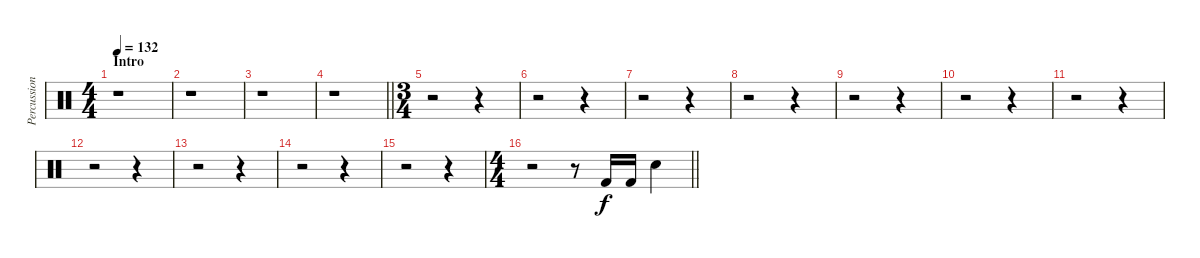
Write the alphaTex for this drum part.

\track ("Percussion" "Percussion") {instrument percussion}
\staff {score}
\articulation defaults
\ts (4 4)
\section ("" "Intro")
\tempo 132
\clef neutral
\ks c
r.1{dy f} |
r.1 |
r.1 |
\barLineRight lightlight
r.1 |
\ts (3 4)
\section ("" "")
r.2 r.4 |
r.2 r.4 |
r.2 r.4 |
r.2 r.4 |
r.2 r.4 |
r.2 r.4 |
r.2 r.4 |
r.2 r.4 |
r.2 r.4 |
r.2 r.4 |
r.2 r.4 |
\ts (4 4)
\barLineRight lightlight
r.2 r.8 "Kick (hit) 2".16 "Kick (hit) 2".16 "Snare (hit) 2".4
